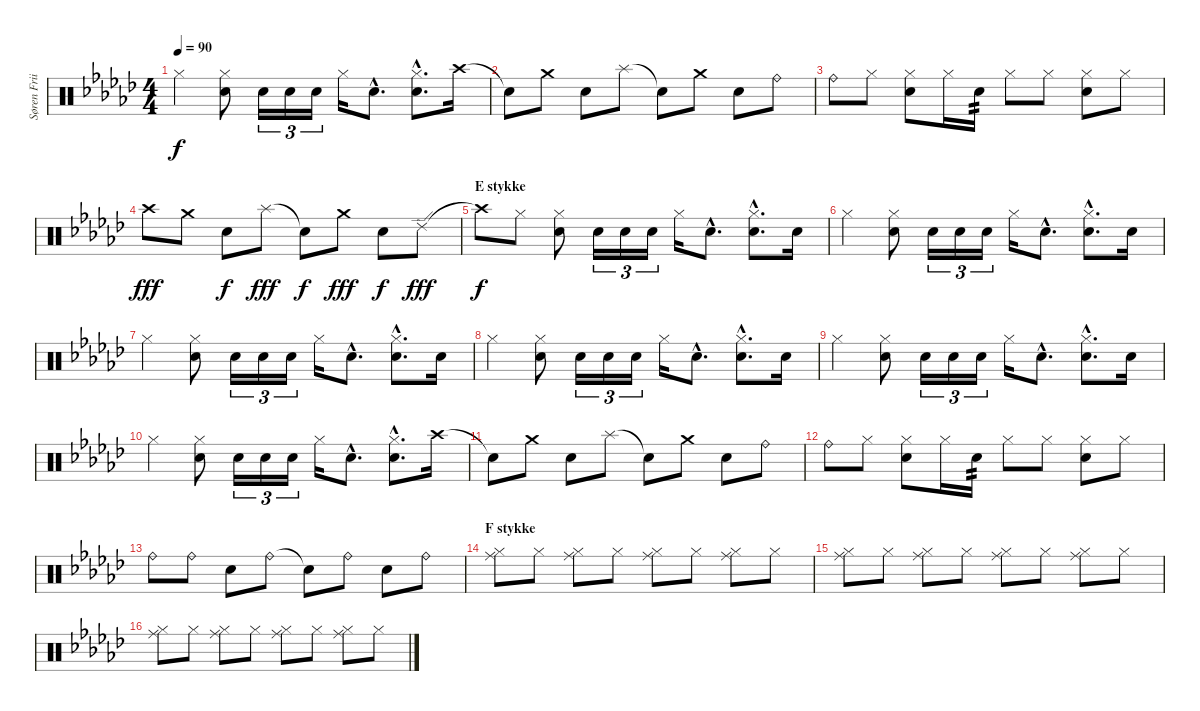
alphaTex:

\track ("Søren Friis (Drums)" "Søren Frii") {instrument percussion}
\staff {score}
\articulation defaults
\ts (4 4)
\tempo 90
\clef neutral
\ks gb "Hi-Hat (closed)".4{dy f}
("Hi-Hat (closed)" "Snare (hit) 2").8 "Snare (hit) 2".16{tu (3 2)} "Snare (hit) 2".16{tu (3 2)} "Snare (hit) 2".16{tu (3 2)} "Hi-Hat (closed)".16 "Snare (hit) 2"{hac}.8{d} ("Hi-Hat (closed)"{hac} "Snare (hit) 2"{hac}).8{d} "Crash high (hit)".16 |
"Snare (hit)"{t}.8 "Crash medium (hit)".8 "Snare (hit) 2".8 "Splash (hit)".8 "Snare (hit)"{t}.8 "Crash medium (hit)".8 "Snare (hit) 2".8 "Ride (bell)".8 |
"Ride (bell)".8 "Hi-Hat (closed)".8 ("Hi-Hat (closed)" "Snare (hit) 2").8 "Hi-Hat (closed)".16 "Snare (hit) 2".16{tp 2} "Hi-Hat (closed)".8 "Hi-Hat (closed)".8 ("Snare (hit) 2" "Hi-Hat (closed)").8 "Hi-Hat (closed)".8 |
"Crash high (hit)".8{dy fff} "Crash medium (hit)".8 "Snare (hit) 2".8{dy f} "Splash (hit)".8{dy fff} "Snare (hit)"{t}.8{dy f} "Crash medium (hit)".8{dy fff} "Snare (hit) 2".8{dy f} "Ride (edge) 2".8{dy fff} |
\section ("" "E stykke")
"Crash high (hit)"{t}.8{dy f} "Hi-Hat (closed)".8 ("Hi-Hat (closed)" "Snare (hit) 2").8 "Snare (hit) 2".16{tu (3 2)} "Snare (hit) 2".16{tu (3 2)} "Snare (hit) 2".16{tu (3 2)} "Hi-Hat (closed)".16 "Snare (hit) 2"{hac}.8{d} ("Hi-Hat (closed)"{hac} "Snare (hit) 2"{hac}).8{d} "Snare (hit) 2".16 |
"Hi-Hat (closed)".4 ("Hi-Hat (closed)" "Snare (hit) 2").8 "Snare (hit) 2".16{tu (3 2)} "Snare (hit) 2".16{tu (3 2)} "Snare (hit) 2".16{tu (3 2)} "Hi-Hat (closed)".16 "Snare (hit) 2"{hac}.8{d} ("Hi-Hat (closed)"{hac} "Snare (hit) 2"{hac}).8{d} "Snare (hit) 2".16 |
"Hi-Hat (closed)".4 ("Hi-Hat (closed)" "Snare (hit) 2").8 "Snare (hit) 2".16{tu (3 2)} "Snare (hit) 2".16{tu (3 2)} "Snare (hit) 2".16{tu (3 2)} "Hi-Hat (closed)".16 "Snare (hit) 2"{hac}.8{d} ("Hi-Hat (closed)"{hac} "Snare (hit) 2"{hac}).8{d} "Snare (hit) 2".16 |
"Hi-Hat (closed)".4 ("Hi-Hat (closed)" "Snare (hit) 2").8 "Snare (hit) 2".16{tu (3 2)} "Snare (hit) 2".16{tu (3 2)} "Snare (hit) 2".16{tu (3 2)} "Hi-Hat (closed)".16 "Snare (hit) 2"{hac}.8{d} ("Hi-Hat (closed)"{hac} "Snare (hit) 2"{hac}).8{d} "Snare (hit) 2".16 |
"Hi-Hat (closed)".4 ("Hi-Hat (closed)" "Snare (hit) 2").8 "Snare (hit) 2".16{tu (3 2)} "Snare (hit) 2".16{tu (3 2)} "Snare (hit) 2".16{tu (3 2)} "Hi-Hat (closed)".16 "Snare (hit) 2"{hac}.8{d} ("Hi-Hat (closed)"{hac} "Snare (hit) 2"{hac}).8{d} "Snare (hit) 2".16 |
"Hi-Hat (closed)".4 ("Hi-Hat (closed)" "Snare (hit) 2").8 "Snare (hit) 2".16{tu (3 2)} "Snare (hit) 2".16{tu (3 2)} "Snare (hit) 2".16{tu (3 2)} "Hi-Hat (closed)".16 "Snare (hit) 2"{hac}.8{d} ("Hi-Hat (closed)"{hac} "Snare (hit) 2"{hac}).8{d} "Crash high (hit)".16 |
"Snare (hit)"{t}.8 "Crash medium (hit)".8 "Snare (hit) 2".8 "Splash (hit)".8 "Snare (hit)"{t}.8 "Crash medium (hit)".8 "Snare (hit) 2".8 "Ride (bell)".8 |
"Ride (bell)".8 "Hi-Hat (closed)".8 ("Hi-Hat (closed)" "Snare (hit) 2").8 "Hi-Hat (closed)".16 "Snare (hit) 2".16{tp 2} "Hi-Hat (closed)".8 "Hi-Hat (closed)".8 ("Snare (hit) 2" "Hi-Hat (closed)").8 "Hi-Hat (closed)".8 |
"Ride (bell)".8 "Ride (bell)".8 "Snare (hit) 2".8 "Ride (bell)".8 "Snare (hit)"{t}.8 "Ride (bell)".8 "Snare (hit) 2".8 "Ride (bell)".8 |
\section ("" "F stykke")
("Hi-Hat (closed)" "Ride (middle)").8 "Hi-Hat (closed)".8 ("Hi-Hat (closed)" "Ride (middle)").8 "Hi-Hat (closed)".8 ("Hi-Hat (closed)" "Ride (middle)").8 "Hi-Hat (closed)".8 ("Hi-Hat (closed)" "Ride (middle)").8 "Hi-Hat (closed)".8 |
("Hi-Hat (closed)" "Ride (middle)").8 "Hi-Hat (closed)".8 ("Hi-Hat (closed)" "Ride (middle)").8 "Hi-Hat (closed)".8 ("Hi-Hat (closed)" "Ride (middle)").8 "Hi-Hat (closed)".8 ("Hi-Hat (closed)" "Ride (middle)").8 "Hi-Hat (closed)".8 |
("Hi-Hat (closed)" "Ride (middle)").8 "Hi-Hat (closed)".8 ("Hi-Hat (closed)" "Ride (middle)").8 "Hi-Hat (closed)".8 ("Hi-Hat (closed)" "Ride (middle)").8 "Hi-Hat (closed)".8 ("Hi-Hat (closed)" "Ride (middle)").8 "Hi-Hat (closed)".8
